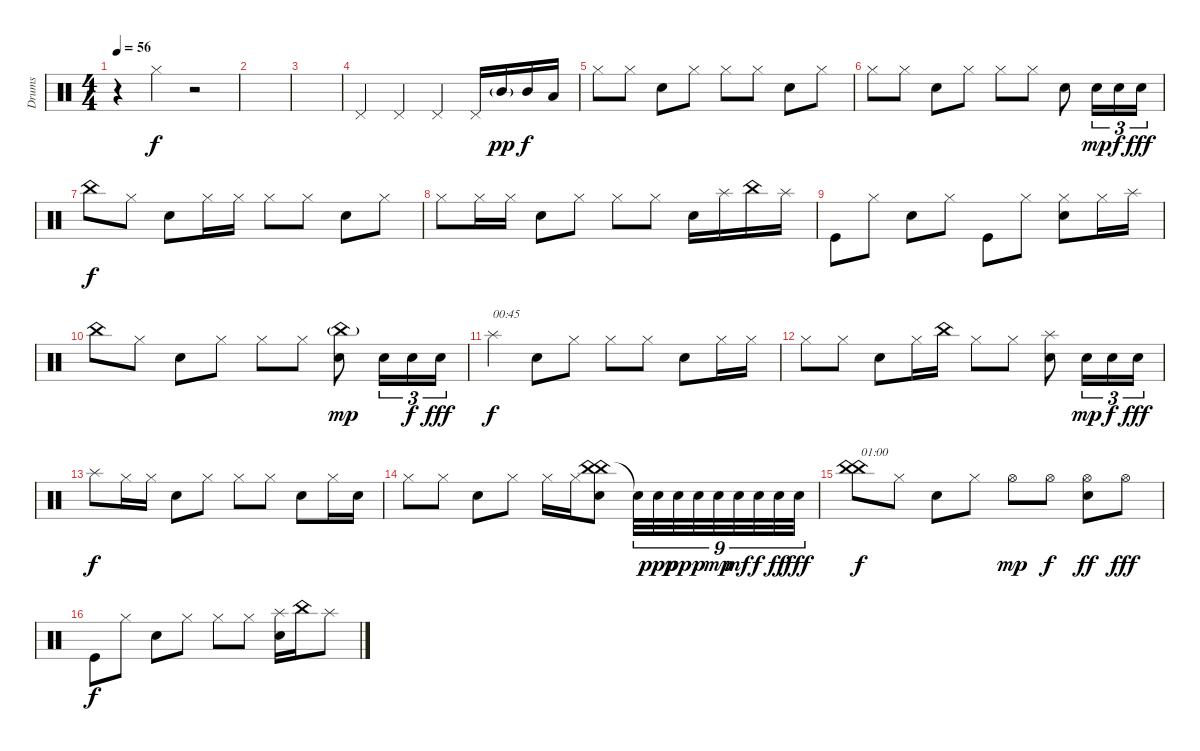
\track ("Drums" "Drums") {instrument percussion}
\staff {score}
\articulation defaults
\ts (4 4)
\tempo 56
\clef neutral
\ks c
r.4{dy f} "Hi-Hat (closed)".4 r.2 |
|
|
"Pedal Hi-Hat (hit)".4 "Pedal Hi-Hat (hit)".4 "Pedal Hi-Hat (hit)".4 "Pedal Hi-Hat (hit)".16 "Mid Tom (hit)"{g}.16{dy pp} "Mid Tom (hit)".16{dy f} "Low Tom (hit)".16 |
"Hi-Hat (closed)".8 "Hi-Hat (closed)".8 "Electric Snare (hit)".8 "Hi-Hat (closed)".8 "Hi-Hat (closed)".8 "Hi-Hat (closed)".8 "Electric Snare (hit)".8 "Hi-Hat (closed)".8 |
"Hi-Hat (closed)".8 "Hi-Hat (closed)".8 "Electric Snare (hit)".8 "Hi-Hat (closed)".8 "Hi-Hat (closed)".8 "Hi-Hat (closed)".8 "Electric Snare (hit)".8 "Electric Snare (hit)".16{tu (3 2) dy mp} "Electric Snare (hit)".16{tu (3 2) dy f} "Electric Snare (hit)".16{tu (3 2) dy fff} |
"China (hit)".8{dy f} "Hi-Hat (closed)".8 "Electric Snare (hit)".8 "Hi-Hat (closed)".16 "Hi-Hat (closed)".16 "Hi-Hat (closed)".8 "Hi-Hat (closed)".8 "Electric Snare (hit)".8 "Hi-Hat (closed)".8 |
"Hi-Hat (closed)".8 "Hi-Hat (closed)".16 "Hi-Hat (closed)".16 "Electric Snare (hit)".8 "Hi-Hat (closed)".8 "Hi-Hat (closed)".8 "Hi-Hat (closed)".8 "Electric Snare (hit)".16 "Splash (hit)".16 "China (hit)".16 "Splash (hit)".16 |
"Kick (hit)".8 "Hi-Hat (closed)".8 "Electric Snare (hit)".8 "Hi-Hat (closed)".8 "Kick (hit)".8 "Hi-Hat (closed)".8 ("Hi-Hat (closed)" "Electric Snare (hit)").8 "Hi-Hat (closed)".16 "Splash (hit)".16 |
"China (hit)".8 "Hi-Hat (closed)".8 "Electric Snare (hit)".8 "Hi-Hat (closed)".8 "Hi-Hat (closed)".8 "Hi-Hat (closed)".8 ("China (hit)"{g} "Electric Snare (hit)").8{dy mp} "Electric Snare (hit)".16{tu (3 2)} "Electric Snare (hit)".16{tu (3 2) dy f} "Electric Snare (hit)".16{tu (3 2) dy fff} |
"Splash (hit)".4{txt "00:45" dy f} "Electric Snare (hit)".8 "Hi-Hat (closed)".8 "Hi-Hat (closed)".8 "Hi-Hat (closed)".8 "Electric Snare (hit)".8 "Hi-Hat (closed)".16 "Hi-Hat (closed)".16 |
"Hi-Hat (closed)".8 "Hi-Hat (closed)".8 "Electric Snare (hit)".8 "Hi-Hat (closed)".16 "China (hit)".16 "Hi-Hat (closed)".8 "Hi-Hat (closed)".8 ("Splash (hit)" "Electric Snare (hit)").8 "Electric Snare (hit)".16{tu (3 2) dy mp} "Electric Snare (hit)".16{tu (3 2) dy f} "Electric Snare (hit)".16{tu (3 2) dy fff} |
"Splash (hit)".8{dy f} "Hi-Hat (closed)".16 "Hi-Hat (closed)".16 "Electric Snare (hit)".8 "Hi-Hat (closed)".8 "Hi-Hat (closed)".8 "Hi-Hat (closed)".8 "Electric Snare (hit)".8 "Hi-Hat (closed)".16 "Electric Snare (hit)".16 |
"Hi-Hat (closed)".8 "Hi-Hat (closed)".8 "Electric Snare (hit)".8 "Hi-Hat (closed)".8 "Hi-Hat (closed)".16 "Hi-Hat (closed)".16 ("China (hit)" "China (hit)" "Electric Snare (hit)").8 "Snare (hit)"{t}.32{tu (9 8)} "Electric Snare (hit)".32{tu (9 8) dy ppp} "Electric Snare (hit)".32{tu (9 8) dy pp} "Electric Snare (hit)".32{tu (9 8) dy p} "Electric Snare (hit)".32{tu (9 8) dy mp} "Electric Snare (hit)".32{tu (9 8) dy mf} "Electric Snare (hit)".32{tu (9 8) dy f} "Electric Snare (hit)".32{tu (9 8) dy ff} "Electric Snare (hit)".32{tu (9 8) dy fff} |
("China (hit)" "China (hit)").8{txt "01:00" dy f} "Hi-Hat (closed)".8 "Electric Snare (hit)".8 "Hi-Hat (closed)".8 "Hi-Hat (open)".8{dy mp} "Hi-Hat (open)".8{dy f} ("Hi-Hat (open)" "Electric Snare (hit)").8{dy ff} "Hi-Hat (open)".8{dy fff} |
"Kick (hit)".8{dy f} "Hi-Hat (closed)".8 "Electric Snare (hit)".8 "Hi-Hat (closed)".8 "Hi-Hat (closed)".8 "Hi-Hat (closed)".8 ("Splash (hit)" "Electric Snare (hit)").16 "China (hit)".16 "Splash (hit)".8
